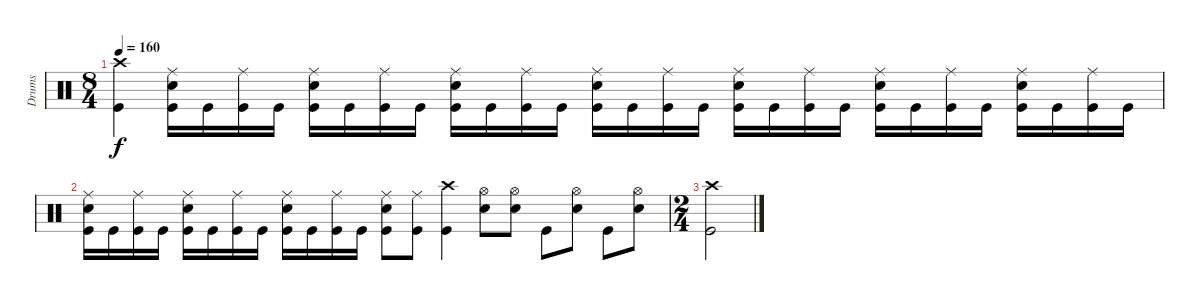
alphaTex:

\track ("Drums" "Drums") {instrument percussion}
\staff {score}
\articulation defaults
\ts (8 4)
\tempo 160
\clef neutral
\ks c
("Crash high (hit)" "Kick (hit)").4{dy f} ("Ride (middle)" "Snare (hit) 2" "Kick (hit)").16 "Kick (hit)".16 ("Ride (middle)" "Kick (hit)").16 "Kick (hit)".16 ("Ride (middle)" "Snare (hit) 2" "Kick (hit)").16 "Kick (hit)".16 ("Ride (middle)" "Kick (hit)").16 "Kick (hit)".16 ("Ride (middle)" "Snare (hit) 2" "Kick (hit)").16 "Kick (hit)".16 ("Ride (middle)" "Kick (hit)").16 "Kick (hit)".16 ("Ride (middle)" "Snare (hit) 2" "Kick (hit)").16 "Kick (hit)".16 ("Ride (middle)" "Kick (hit)").16 "Kick (hit)".16 ("Ride (middle)" "Snare (hit) 2" "Kick (hit)").16 "Kick (hit)".16 ("Ride (middle)" "Kick (hit)").16 "Kick (hit)".16 ("Ride (middle)" "Snare (hit) 2" "Kick (hit)").16 "Kick (hit)".16 ("Ride (middle)" "Kick (hit)").16 "Kick (hit)".16 ("Ride (middle)" "Snare (hit) 2" "Kick (hit)").16 "Kick (hit)".16 ("Ride (middle)" "Kick (hit)").16 "Kick (hit)".16 |
("Ride (middle)" "Snare (hit) 2" "Kick (hit)").16 "Kick (hit)".16 ("Ride (middle)" "Kick (hit)").16 "Kick (hit)".16 ("Ride (middle)" "Snare (hit) 2" "Kick (hit)").16 "Kick (hit)".16 ("Ride (middle)" "Kick (hit)").16 "Kick (hit)".16 ("Ride (middle)" "Snare (hit) 2" "Kick (hit)").16 "Kick (hit)".16 ("Ride (middle)" "Kick (hit)").16 "Kick (hit)".16 ("Ride (middle)" "Snare (hit) 2" "Kick (hit)").8 ("Ride (middle)" "Kick (hit)").8 ("Crash high (hit)" "Kick (hit)").4 ("Hi-Hat (open)" "Snare (hit) 2").8 ("Hi-Hat (open)" "Snare (hit) 2").8 "Kick (hit)".8 ("Hi-Hat (open)" "Snare (hit) 2").8 "Kick (hit)".8 ("Hi-Hat (open)" "Snare (hit) 2").8 |
\ts (2 4)
("Crash high (hit)" "Kick (hit)").2
